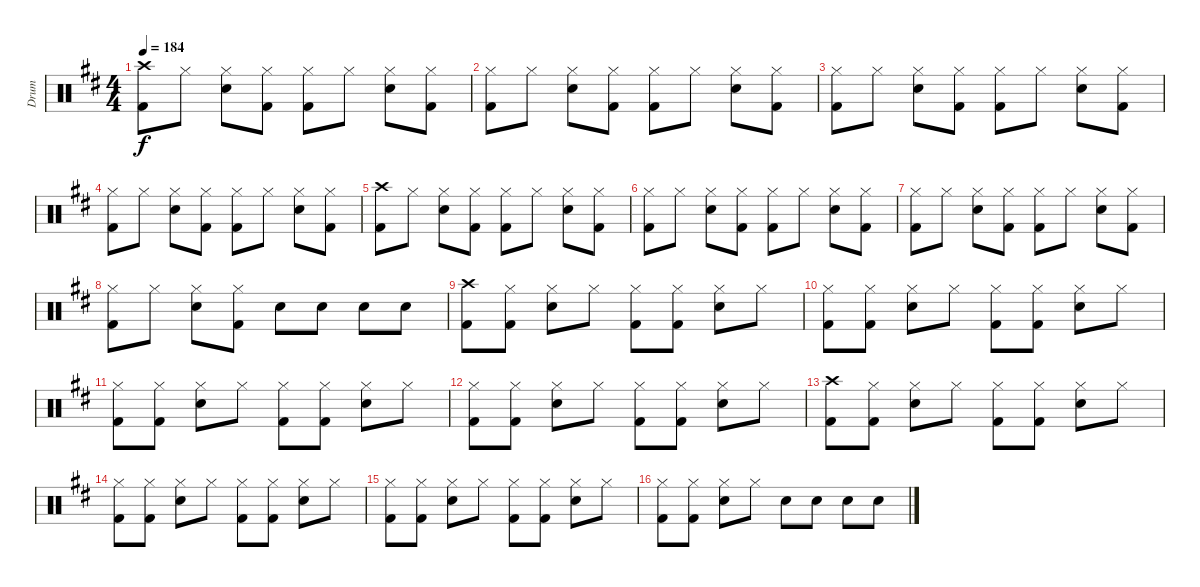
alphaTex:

\track ("Drum" "Drum") {instrument percussion}
\staff {score}
\articulation defaults
\ts (4 4)
\tempo 184
\clef neutral
\ks d
("Crash high (hit)" "Kick (hit) 2").8{dy f} "Hi-Hat (closed)".8 ("Hi-Hat (closed)" "Electric Snare (hit)").8 ("Hi-Hat (closed)" "Kick (hit) 2").8 ("Hi-Hat (closed)" "Kick (hit) 2").8 "Hi-Hat (closed)".8 ("Hi-Hat (closed)" "Electric Snare (hit)").8 ("Hi-Hat (closed)" "Kick (hit) 2").8 |
("Hi-Hat (closed)" "Kick (hit) 2").8 "Hi-Hat (closed)".8 ("Hi-Hat (closed)" "Electric Snare (hit)").8 ("Hi-Hat (closed)" "Kick (hit) 2").8 ("Hi-Hat (closed)" "Kick (hit) 2").8 "Hi-Hat (closed)".8 ("Hi-Hat (closed)" "Electric Snare (hit)").8 ("Hi-Hat (closed)" "Kick (hit) 2").8 |
("Hi-Hat (closed)" "Kick (hit) 2").8 "Hi-Hat (closed)".8 ("Hi-Hat (closed)" "Electric Snare (hit)").8 ("Hi-Hat (closed)" "Kick (hit) 2").8 ("Hi-Hat (closed)" "Kick (hit) 2").8 "Hi-Hat (closed)".8 ("Hi-Hat (closed)" "Electric Snare (hit)").8 ("Hi-Hat (closed)" "Kick (hit) 2").8 |
("Hi-Hat (closed)" "Kick (hit) 2").8 "Hi-Hat (closed)".8 ("Hi-Hat (closed)" "Electric Snare (hit)").8 ("Hi-Hat (closed)" "Kick (hit) 2").8 ("Hi-Hat (closed)" "Kick (hit) 2").8 "Hi-Hat (closed)".8 ("Hi-Hat (closed)" "Electric Snare (hit)").8 ("Hi-Hat (closed)" "Kick (hit) 2").8 |
("Crash high (hit)" "Kick (hit) 2").8 "Hi-Hat (closed)".8 ("Hi-Hat (closed)" "Electric Snare (hit)").8 ("Hi-Hat (closed)" "Kick (hit) 2").8 ("Hi-Hat (closed)" "Kick (hit) 2").8 "Hi-Hat (closed)".8 ("Hi-Hat (closed)" "Electric Snare (hit)").8 ("Hi-Hat (closed)" "Kick (hit) 2").8 |
("Hi-Hat (closed)" "Kick (hit) 2").8 "Hi-Hat (closed)".8 ("Hi-Hat (closed)" "Electric Snare (hit)").8 ("Hi-Hat (closed)" "Kick (hit) 2").8 ("Hi-Hat (closed)" "Kick (hit) 2").8 "Hi-Hat (closed)".8 ("Hi-Hat (closed)" "Electric Snare (hit)").8 ("Hi-Hat (closed)" "Kick (hit) 2").8 |
("Hi-Hat (closed)" "Kick (hit) 2").8 "Hi-Hat (closed)".8 ("Hi-Hat (closed)" "Electric Snare (hit)").8 ("Hi-Hat (closed)" "Kick (hit) 2").8 ("Hi-Hat (closed)" "Kick (hit) 2").8 "Hi-Hat (closed)".8 ("Hi-Hat (closed)" "Electric Snare (hit)").8 ("Hi-Hat (closed)" "Kick (hit) 2").8 |
("Hi-Hat (closed)" "Kick (hit) 2").8 "Hi-Hat (closed)".8 ("Hi-Hat (closed)" "Electric Snare (hit)").8 ("Hi-Hat (closed)" "Kick (hit) 2").8 "Electric Snare (hit)".8 "Electric Snare (hit)".8 "Electric Snare (hit)".8 "Electric Snare (hit)".8 |
("Crash high (hit)" "Kick (hit) 2").8 ("Hi-Hat (closed)" "Kick (hit) 2").8 ("Hi-Hat (closed)" "Electric Snare (hit)").8 "Hi-Hat (closed)".8 ("Hi-Hat (closed)" "Kick (hit) 2").8 ("Hi-Hat (closed)" "Kick (hit) 2").8 ("Hi-Hat (closed)" "Electric Snare (hit)").8 "Hi-Hat (closed)".8 |
("Hi-Hat (closed)" "Kick (hit) 2").8 ("Hi-Hat (closed)" "Kick (hit) 2").8 ("Hi-Hat (closed)" "Electric Snare (hit)").8 "Hi-Hat (closed)".8 ("Hi-Hat (closed)" "Kick (hit) 2").8 ("Hi-Hat (closed)" "Kick (hit) 2").8 ("Hi-Hat (closed)" "Electric Snare (hit)").8 "Hi-Hat (closed)".8 |
("Hi-Hat (closed)" "Kick (hit) 2").8 ("Hi-Hat (closed)" "Kick (hit) 2").8 ("Hi-Hat (closed)" "Electric Snare (hit)").8 "Hi-Hat (closed)".8 ("Hi-Hat (closed)" "Kick (hit) 2").8 ("Hi-Hat (closed)" "Kick (hit) 2").8 ("Hi-Hat (closed)" "Electric Snare (hit)").8 "Hi-Hat (closed)".8 |
("Hi-Hat (closed)" "Kick (hit) 2").8 ("Hi-Hat (closed)" "Kick (hit) 2").8 ("Hi-Hat (closed)" "Electric Snare (hit)").8 "Hi-Hat (closed)".8 ("Hi-Hat (closed)" "Kick (hit) 2").8 ("Hi-Hat (closed)" "Kick (hit) 2").8 ("Hi-Hat (closed)" "Electric Snare (hit)").8 "Hi-Hat (closed)".8 |
("Crash high (hit)" "Kick (hit) 2").8 ("Hi-Hat (closed)" "Kick (hit) 2").8 ("Hi-Hat (closed)" "Electric Snare (hit)").8 "Hi-Hat (closed)".8 ("Hi-Hat (closed)" "Kick (hit) 2").8 ("Hi-Hat (closed)" "Kick (hit) 2").8 ("Hi-Hat (closed)" "Electric Snare (hit)").8 "Hi-Hat (closed)".8 |
("Hi-Hat (closed)" "Kick (hit) 2").8 ("Hi-Hat (closed)" "Kick (hit) 2").8 ("Hi-Hat (closed)" "Electric Snare (hit)").8 "Hi-Hat (closed)".8 ("Hi-Hat (closed)" "Kick (hit) 2").8 ("Hi-Hat (closed)" "Kick (hit) 2").8 ("Hi-Hat (closed)" "Electric Snare (hit)").8 "Hi-Hat (closed)".8 |
("Hi-Hat (closed)" "Kick (hit) 2").8 ("Hi-Hat (closed)" "Kick (hit) 2").8 ("Hi-Hat (closed)" "Electric Snare (hit)").8 "Hi-Hat (closed)".8 ("Hi-Hat (closed)" "Kick (hit) 2").8 ("Hi-Hat (closed)" "Kick (hit) 2").8 ("Hi-Hat (closed)" "Electric Snare (hit)").8 "Hi-Hat (closed)".8 |
("Hi-Hat (closed)" "Kick (hit) 2").8 ("Hi-Hat (closed)" "Kick (hit) 2").8 ("Hi-Hat (closed)" "Electric Snare (hit)").8 "Hi-Hat (closed)".8 "Electric Snare (hit)".8 "Electric Snare (hit)".8 "Electric Snare (hit)".8 "Electric Snare (hit)".8
